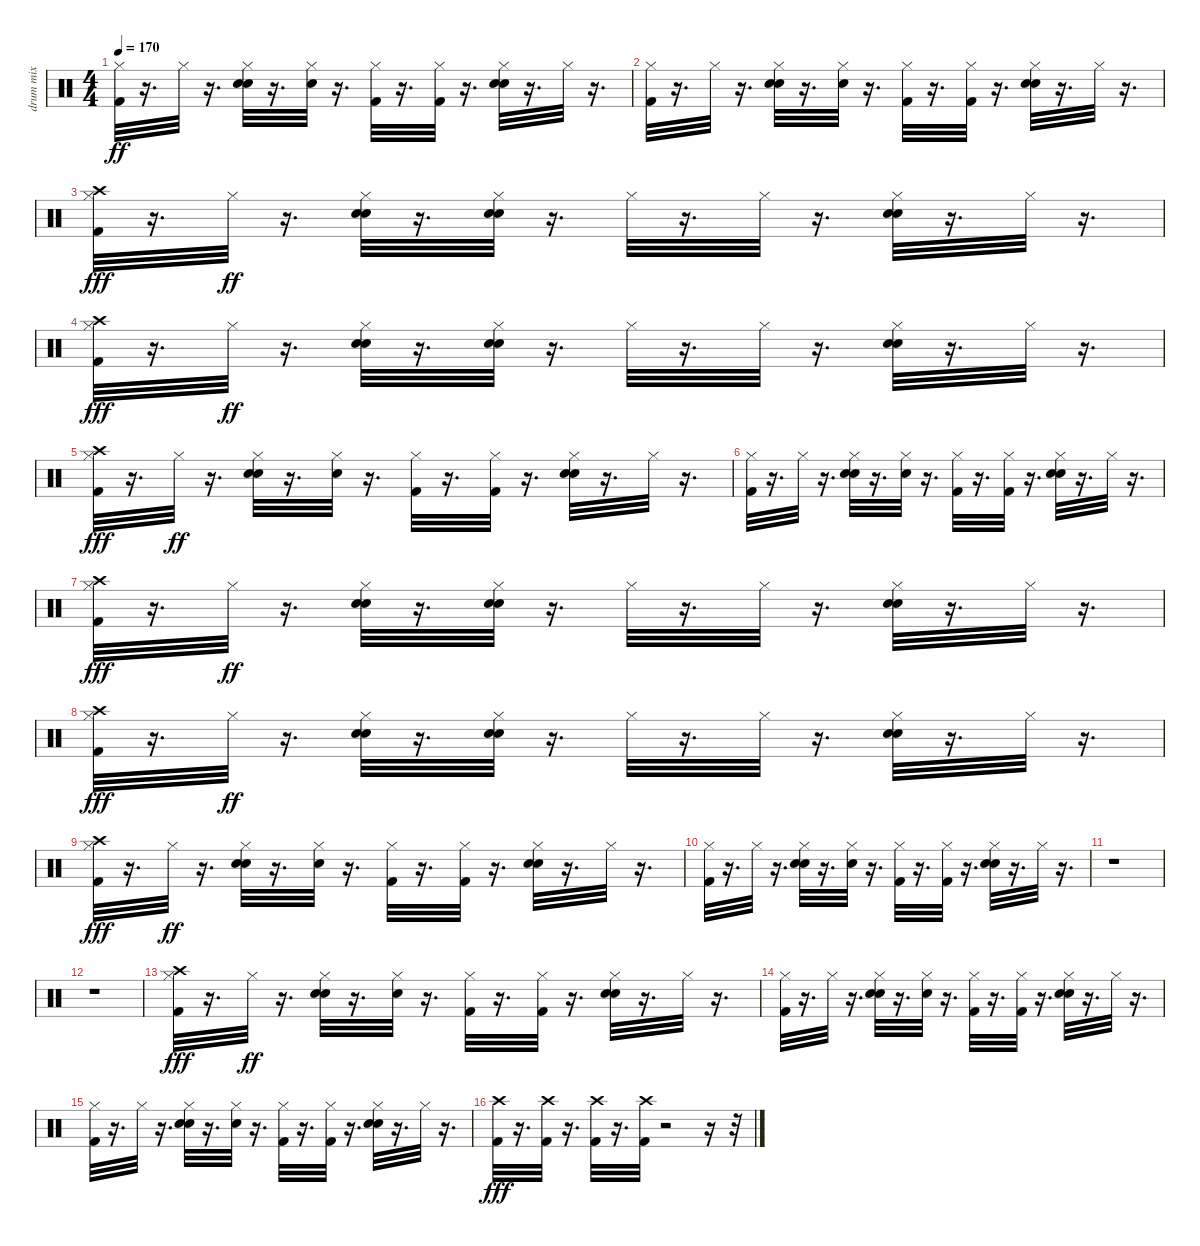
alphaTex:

\track ("drum mix" "drum mix") {instrument percussion}
\staff {score}
\articulation defaults
\ts (4 4)
\tempo 170
\clef neutral
\ks c
("Kick (hit) 2" "Hi-Hat (closed)").32{dy ff} r.16{d} "Hi-Hat (closed)".32 r.16{d} ("Snare (hit) 2" "Hand Clap (hit)" "Hi-Hat (closed)").32 r.16{d} ("Snare (hit) 2" "Hi-Hat (closed)").32 r.16{d} ("Kick (hit) 2" "Hi-Hat (closed)").32 r.16{d} ("Kick (hit) 2" "Hi-Hat (closed)").32 r.16{d} ("Snare (hit) 2" "Hand Clap (hit)" "Hi-Hat (closed)").32 r.16{d} "Hi-Hat (closed)".32 r.16{d} |
("Kick (hit) 2" "Hi-Hat (closed)").32 r.16{d} "Hi-Hat (closed)".32 r.16{d} ("Snare (hit) 2" "Hand Clap (hit)" "Hi-Hat (closed)").32 r.16{d} ("Snare (hit) 2" "Hi-Hat (closed)").32 r.16{d} ("Kick (hit) 2" "Hi-Hat (closed)").32 r.16{d} ("Kick (hit) 2" "Hi-Hat (closed)").32 r.16{d} ("Snare (hit) 2" "Hand Clap (hit)" "Hi-Hat (closed)").32 r.16{d} "Hi-Hat (closed)".32 r.16{d} |
("Kick (hit) 2" "Hi-Hat (closed)" "Crash high (hit)").32{dy fff} r.16{d} "Hi-Hat (closed)".32{dy ff} r.16{d} ("Snare (hit) 2" "Hand Clap (hit)" "Hi-Hat (closed)").32 r.16{d} ("Snare (hit) 2" "Hand Clap (hit)" "Hi-Hat (closed)").32 r.16{d} "Hi-Hat (closed)".32 r.16{d} "Hi-Hat (closed)".32 r.16{d} ("Snare (hit) 2" "Hand Clap (hit)" "Hi-Hat (closed)").32 r.16{d} "Hi-Hat (closed)".32 r.16{d} |
("Kick (hit) 2" "Hi-Hat (closed)" "Crash high (hit)").32{dy fff} r.16{d} "Hi-Hat (closed)".32{dy ff} r.16{d} ("Snare (hit) 2" "Hand Clap (hit)" "Hi-Hat (closed)").32 r.16{d} ("Snare (hit) 2" "Hand Clap (hit)" "Hi-Hat (closed)").32 r.16{d} "Hi-Hat (closed)".32 r.16{d} "Hi-Hat (closed)".32 r.16{d} ("Snare (hit) 2" "Hand Clap (hit)" "Hi-Hat (closed)").32 r.16{d} "Hi-Hat (closed)".32 r.16{d} |
("Kick (hit) 2" "Hi-Hat (closed)" "Crash high (hit)").32{dy fff} r.16{d} "Hi-Hat (closed)".32{dy ff} r.16{d} ("Snare (hit) 2" "Hand Clap (hit)" "Hi-Hat (closed)").32 r.16{d} ("Snare (hit) 2" "Hi-Hat (closed)").32 r.16{d} ("Kick (hit) 2" "Hi-Hat (closed)").32 r.16{d} ("Kick (hit) 2" "Hi-Hat (closed)").32 r.16{d} ("Snare (hit) 2" "Hand Clap (hit)" "Hi-Hat (closed)").32 r.16{d} "Hi-Hat (closed)".32 r.16{d} |
("Kick (hit) 2" "Hi-Hat (closed)").32 r.16{d} "Hi-Hat (closed)".32 r.16{d} ("Snare (hit) 2" "Hand Clap (hit)" "Hi-Hat (closed)").32 r.16{d} ("Snare (hit) 2" "Hi-Hat (closed)").32 r.16{d} ("Kick (hit) 2" "Hi-Hat (closed)").32 r.16{d} ("Kick (hit) 2" "Hi-Hat (closed)").32 r.16{d} ("Snare (hit) 2" "Hand Clap (hit)" "Hi-Hat (closed)").32 r.16{d} "Hi-Hat (closed)".32 r.16{d} |
("Kick (hit) 2" "Hi-Hat (closed)" "Crash high (hit)").32{dy fff} r.16{d} "Hi-Hat (closed)".32{dy ff} r.16{d} ("Snare (hit) 2" "Hand Clap (hit)" "Hi-Hat (closed)").32 r.16{d} ("Snare (hit) 2" "Hand Clap (hit)" "Hi-Hat (closed)").32 r.16{d} "Hi-Hat (closed)".32 r.16{d} "Hi-Hat (closed)".32 r.16{d} ("Snare (hit) 2" "Hand Clap (hit)" "Hi-Hat (closed)").32 r.16{d} "Hi-Hat (closed)".32 r.16{d} |
("Kick (hit) 2" "Hi-Hat (closed)" "Crash high (hit)").32{dy fff} r.16{d} "Hi-Hat (closed)".32{dy ff} r.16{d} ("Snare (hit) 2" "Hand Clap (hit)" "Hi-Hat (closed)").32 r.16{d} ("Snare (hit) 2" "Hand Clap (hit)" "Hi-Hat (closed)").32 r.16{d} "Hi-Hat (closed)".32 r.16{d} "Hi-Hat (closed)".32 r.16{d} ("Snare (hit) 2" "Hand Clap (hit)" "Hi-Hat (closed)").32 r.16{d} "Hi-Hat (closed)".32 r.16{d} |
("Kick (hit) 2" "Hi-Hat (closed)" "Crash high (hit)").32{dy fff} r.16{d} "Hi-Hat (closed)".32{dy ff} r.16{d} ("Snare (hit) 2" "Hand Clap (hit)" "Hi-Hat (closed)").32 r.16{d} ("Snare (hit) 2" "Hi-Hat (closed)").32 r.16{d} ("Kick (hit) 2" "Hi-Hat (closed)").32 r.16{d} ("Kick (hit) 2" "Hi-Hat (closed)").32 r.16{d} ("Snare (hit) 2" "Hand Clap (hit)" "Hi-Hat (closed)").32 r.16{d} "Hi-Hat (closed)".32 r.16{d} |
("Kick (hit) 2" "Hi-Hat (closed)").32 r.16{d} "Hi-Hat (closed)".32 r.16{d} ("Snare (hit) 2" "Hand Clap (hit)" "Hi-Hat (closed)").32 r.16{d} ("Snare (hit) 2" "Hi-Hat (closed)").32 r.16{d} ("Kick (hit) 2" "Hi-Hat (closed)").32 r.16{d} ("Kick (hit) 2" "Hi-Hat (closed)").32 r.16{d} ("Snare (hit) 2" "Hand Clap (hit)" "Hi-Hat (closed)").32 r.16{d} "Hi-Hat (closed)".32 r.16{d} |
r.1 |
r.1 |
("Kick (hit) 2" "Hi-Hat (closed)" "Crash high (hit)").32{dy fff} r.16{d} "Hi-Hat (closed)".32{dy ff} r.16{d} ("Snare (hit) 2" "Hand Clap (hit)" "Hi-Hat (closed)").32 r.16{d} ("Snare (hit) 2" "Hi-Hat (closed)").32 r.16{d} ("Kick (hit) 2" "Hi-Hat (closed)").32 r.16{d} ("Kick (hit) 2" "Hi-Hat (closed)").32 r.16{d} ("Snare (hit) 2" "Hand Clap (hit)" "Hi-Hat (closed)").32 r.16{d} "Hi-Hat (closed)".32 r.16{d} |
("Kick (hit) 2" "Hi-Hat (closed)").32 r.16{d} "Hi-Hat (closed)".32 r.16{d} ("Snare (hit) 2" "Hand Clap (hit)" "Hi-Hat (closed)").32 r.16{d} ("Snare (hit) 2" "Hi-Hat (closed)").32 r.16{d} ("Kick (hit) 2" "Hi-Hat (closed)").32 r.16{d} ("Kick (hit) 2" "Hi-Hat (closed)").32 r.16{d} ("Snare (hit) 2" "Hand Clap (hit)" "Hi-Hat (closed)").32 r.16{d} "Hi-Hat (closed)".32 r.16{d} |
("Kick (hit) 2" "Hi-Hat (closed)").32 r.16{d} "Hi-Hat (closed)".32 r.16{d} ("Snare (hit) 2" "Hand Clap (hit)" "Hi-Hat (closed)").32 r.16{d} ("Snare (hit) 2" "Hi-Hat (closed)").32 r.16{d} ("Kick (hit) 2" "Hi-Hat (closed)").32 r.16{d} ("Kick (hit) 2" "Hi-Hat (closed)").32 r.16{d} ("Snare (hit) 2" "Hand Clap (hit)" "Hi-Hat (closed)").32 r.16{d} "Hi-Hat (closed)".32 r.16{d} |
("Kick (hit) 2" "Crash high (hit)").32{dy fff} r.16{d} ("Kick (hit) 2" "Crash high (hit)").32 r.16{d} ("Kick (hit) 2" "Crash high (hit)").32 r.16{d} ("Kick (hit) 2" "Crash high (hit)").32 r.2 r.16 r.32
